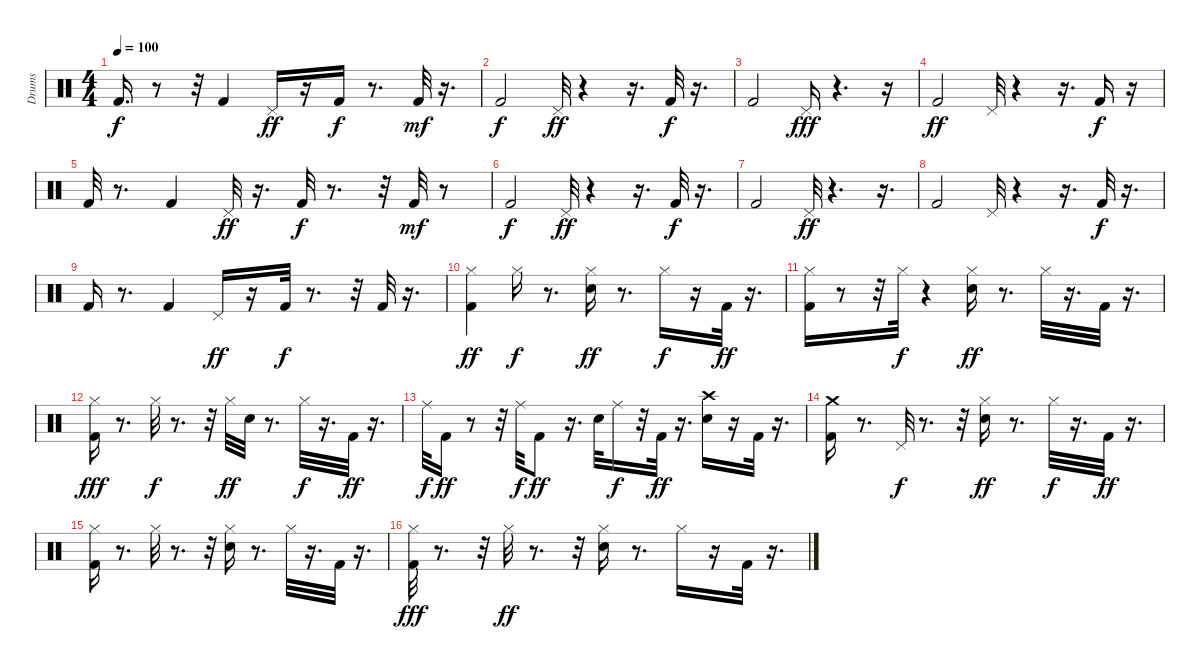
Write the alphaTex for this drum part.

\track ("Drums" "Drums") {instrument percussion}
\staff {score}
\articulation defaults
\ts (4 4)
\tempo 100
\clef neutral
\ks c "Kick (hit) 2".16{d dy f}
r.8 r.32 "Kick (hit) 2".4 "Pedal Hi-Hat (hit)".16{dy ff} r.16 "Kick (hit) 2".16{dy f} r.8{d} "Kick (hit) 2".32{dy mf} r.16{d} |
"Kick (hit) 2".2{dy f} "Pedal Hi-Hat (hit)".32{dy ff} r.4 r.16{d} "Kick (hit) 2".32{dy f} r.16{d} |
"Kick (hit) 2".2 "Pedal Hi-Hat (hit)".16{dy fff} r.4{d} r.16 |
"Kick (hit) 2".2{dy ff} "Pedal Hi-Hat (hit)".32 r.4 r.16{d} "Kick (hit) 2".16{dy f} r.16 |
"Kick (hit) 2".32 r.8{d} "Kick (hit) 2".4 "Pedal Hi-Hat (hit)".32{dy ff} r.16{d} "Kick (hit) 2".32{dy f} r.8{d} r.32 "Kick (hit) 2".32{dy mf} r.8 |
"Kick (hit) 2".2{dy f} "Pedal Hi-Hat (hit)".32{dy ff} r.4 r.16{d} "Kick (hit) 2".32{dy f} r.16{d} |
"Kick (hit) 2".2 "Pedal Hi-Hat (hit)".32{dy ff} r.4{d} r.16{d} |
"Kick (hit) 2".2 "Pedal Hi-Hat (hit)".32 r.4 r.16{d} "Kick (hit) 2".32{dy f} r.16{d} |
"Kick (hit) 2".16 r.8{d} "Kick (hit) 2".4 "Pedal Hi-Hat (hit)".16{dy ff} r.16 "Kick (hit) 2".32{dy f} r.8{d} r.32 "Kick (hit) 2".32 r.16{d} |
("Hi-Hat (closed)" "Kick (hit) 2").4{dy ff} "Hi-Hat (closed)".16{dy f} r.8{d} ("Hi-Hat (closed)" "Electric Snare (hit)").16{dy ff} r.8{d} "Hi-Hat (closed)".16{dy f} r.16 "Kick (hit) 2".32{dy ff} r.16{d} |
("Hi-Hat (closed)" "Kick (hit) 2").16 r.8 r.32 "Hi-Hat (closed)".32{dy f} r.4 ("Hi-Hat (closed)" "Electric Snare (hit)").16{dy ff} r.8{d} "Hi-Hat (closed)".32 r.16{d} "Kick (hit) 2".32 r.16{d} |
("Hi-Hat (closed)" "Kick (hit) 2").16{dy fff} r.8{d} "Hi-Hat (closed)".32{dy f} r.8{d} r.32 "Hi-Hat (closed)".32{dy ff} "Electric Snare (hit)".32 r.8{d} "Hi-Hat (closed)".32{dy f} r.16{d} "Kick (hit) 2".32{dy ff} r.16{d} |
"Ride (middle)".32{dy f} "Kick (hit) 2".16{dy ff} r.8 r.32 "Ride (middle)".32{dy f} "Kick (hit) 2".8{dy ff} r.16{d} "Electric Snare (hit)".32 "Ride (middle)".16{dy f} r.32 "Kick (hit) 2".32{dy ff} r.16{d} ("Crash high (hit)" "Electric Snare (hit)").16 r.16 "Kick (hit) 2".32 r.16{d} |
("Crash medium (hit)" "Kick (hit) 2").16 r.8{d} "Pedal Hi-Hat (hit)".32{dy f} r.8{d} r.32 ("Hi-Hat (closed)" "Electric Snare (hit)").16{dy ff} r.8{d} "Hi-Hat (closed)".32{dy f} r.16{d} "Kick (hit) 2".32{dy ff} r.16{d} |
("Hi-Hat (closed)" "Kick (hit) 2").16 r.8{d} "Hi-Hat (closed)".32 r.8{d} r.32 ("Hi-Hat (closed)" "Electric Snare (hit)").16 r.8{d} "Hi-Hat (closed)".32 r.16{d} "Kick (hit) 2".32 r.16{d} |
("Hi-Hat (closed)" "Kick (hit) 2").32{dy fff} r.8{d} r.32 "Hi-Hat (closed)".32{dy ff} r.8{d} r.32 ("Hi-Hat (closed)" "Electric Snare (hit)").16 r.8{d} "Hi-Hat (closed)".16 r.16 "Kick (hit) 2".32 r.16{d}
